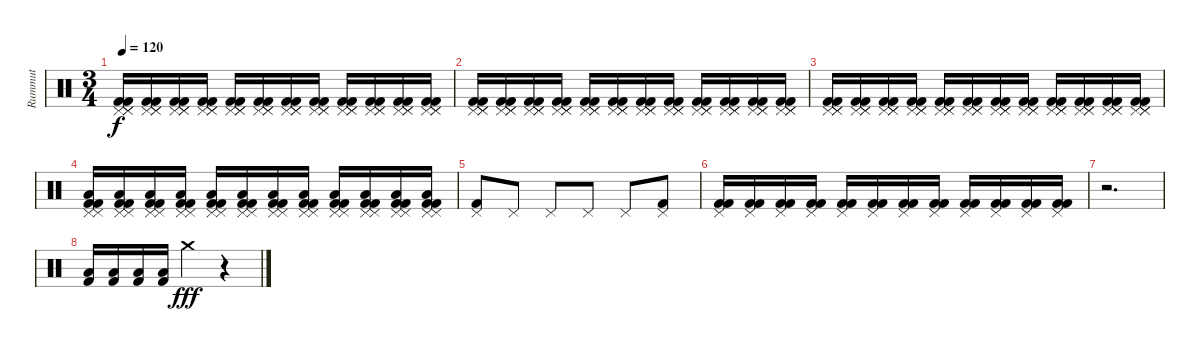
\track ("Rummut" "Rummut") {instrument percussion}
\staff {score}
\articulation defaults
\ts (3 4)
\tempo 120
\clef neutral
\ks c
("Pedal Hi-Hat (hit)" "Pedal Hi-Hat (hit)" "Pedal Hi-Hat (hit)" "Kick (hit) 2" "Kick (hit) 2").16{dy f} ("Pedal Hi-Hat (hit)" "Pedal Hi-Hat (hit)" "Pedal Hi-Hat (hit)" "Kick (hit) 2" "Kick (hit) 2").16 ("Pedal Hi-Hat (hit)" "Pedal Hi-Hat (hit)" "Pedal Hi-Hat (hit)" "Kick (hit) 2" "Kick (hit) 2").16 ("Pedal Hi-Hat (hit)" "Pedal Hi-Hat (hit)" "Pedal Hi-Hat (hit)" "Kick (hit) 2" "Kick (hit) 2").16 ("Pedal Hi-Hat (hit)" "Pedal Hi-Hat (hit)" "Pedal Hi-Hat (hit)" "Kick (hit) 2" "Kick (hit) 2").16 ("Pedal Hi-Hat (hit)" "Pedal Hi-Hat (hit)" "Pedal Hi-Hat (hit)" "Kick (hit) 2" "Kick (hit) 2").16 ("Pedal Hi-Hat (hit)" "Pedal Hi-Hat (hit)" "Pedal Hi-Hat (hit)" "Kick (hit) 2" "Kick (hit) 2").16 ("Pedal Hi-Hat (hit)" "Pedal Hi-Hat (hit)" "Pedal Hi-Hat (hit)" "Kick (hit) 2" "Kick (hit) 2").16 ("Pedal Hi-Hat (hit)" "Pedal Hi-Hat (hit)" "Pedal Hi-Hat (hit)" "Kick (hit) 2" "Kick (hit) 2").16 ("Pedal Hi-Hat (hit)" "Pedal Hi-Hat (hit)" "Pedal Hi-Hat (hit)" "Kick (hit) 2" "Kick (hit) 2").16 ("Pedal Hi-Hat (hit)" "Pedal Hi-Hat (hit)" "Pedal Hi-Hat (hit)" "Kick (hit) 2" "Kick (hit) 2").16 ("Pedal Hi-Hat (hit)" "Pedal Hi-Hat (hit)" "Pedal Hi-Hat (hit)" "Kick (hit) 2" "Kick (hit) 2").16 |
("Pedal Hi-Hat (hit)" "Pedal Hi-Hat (hit)" "Pedal Hi-Hat (hit)" "Kick (hit) 2" "Kick (hit) 2").16 ("Pedal Hi-Hat (hit)" "Pedal Hi-Hat (hit)" "Pedal Hi-Hat (hit)" "Kick (hit) 2" "Kick (hit) 2").16 ("Pedal Hi-Hat (hit)" "Pedal Hi-Hat (hit)" "Pedal Hi-Hat (hit)" "Kick (hit) 2" "Kick (hit) 2").16 ("Pedal Hi-Hat (hit)" "Pedal Hi-Hat (hit)" "Pedal Hi-Hat (hit)" "Kick (hit) 2" "Kick (hit) 2").16 ("Pedal Hi-Hat (hit)" "Pedal Hi-Hat (hit)" "Pedal Hi-Hat (hit)" "Kick (hit) 2" "Kick (hit) 2").16 ("Pedal Hi-Hat (hit)" "Pedal Hi-Hat (hit)" "Pedal Hi-Hat (hit)" "Kick (hit) 2" "Kick (hit) 2").16 ("Pedal Hi-Hat (hit)" "Pedal Hi-Hat (hit)" "Pedal Hi-Hat (hit)" "Kick (hit) 2" "Kick (hit) 2").16 ("Pedal Hi-Hat (hit)" "Pedal Hi-Hat (hit)" "Pedal Hi-Hat (hit)" "Kick (hit) 2" "Kick (hit) 2").16 ("Pedal Hi-Hat (hit)" "Pedal Hi-Hat (hit)" "Pedal Hi-Hat (hit)" "Kick (hit) 2" "Kick (hit) 2").16 ("Pedal Hi-Hat (hit)" "Pedal Hi-Hat (hit)" "Pedal Hi-Hat (hit)" "Kick (hit) 2" "Kick (hit) 2").16 ("Pedal Hi-Hat (hit)" "Pedal Hi-Hat (hit)" "Pedal Hi-Hat (hit)" "Kick (hit) 2" "Kick (hit) 2").16 ("Pedal Hi-Hat (hit)" "Pedal Hi-Hat (hit)" "Pedal Hi-Hat (hit)" "Kick (hit) 2" "Kick (hit) 2").16 |
("Pedal Hi-Hat (hit)" "Pedal Hi-Hat (hit)" "Pedal Hi-Hat (hit)" "Kick (hit) 2" "Kick (hit) 2").16 ("Pedal Hi-Hat (hit)" "Pedal Hi-Hat (hit)" "Pedal Hi-Hat (hit)" "Kick (hit) 2" "Kick (hit) 2").16 ("Pedal Hi-Hat (hit)" "Pedal Hi-Hat (hit)" "Pedal Hi-Hat (hit)" "Kick (hit) 2" "Kick (hit) 2").16 ("Pedal Hi-Hat (hit)" "Pedal Hi-Hat (hit)" "Pedal Hi-Hat (hit)" "Kick (hit) 2" "Kick (hit) 2").16 ("Pedal Hi-Hat (hit)" "Pedal Hi-Hat (hit)" "Pedal Hi-Hat (hit)" "Kick (hit) 2" "Kick (hit) 2").16 ("Pedal Hi-Hat (hit)" "Pedal Hi-Hat (hit)" "Pedal Hi-Hat (hit)" "Kick (hit) 2" "Kick (hit) 2").16 ("Pedal Hi-Hat (hit)" "Pedal Hi-Hat (hit)" "Pedal Hi-Hat (hit)" "Kick (hit) 2" "Kick (hit) 2").16 ("Pedal Hi-Hat (hit)" "Pedal Hi-Hat (hit)" "Pedal Hi-Hat (hit)" "Kick (hit) 2" "Kick (hit) 2").16 ("Pedal Hi-Hat (hit)" "Pedal Hi-Hat (hit)" "Pedal Hi-Hat (hit)" "Kick (hit) 2" "Kick (hit) 2").16 ("Pedal Hi-Hat (hit)" "Pedal Hi-Hat (hit)" "Pedal Hi-Hat (hit)" "Kick (hit) 2" "Kick (hit) 2").16 ("Pedal Hi-Hat (hit)" "Pedal Hi-Hat (hit)" "Pedal Hi-Hat (hit)" "Kick (hit) 2" "Kick (hit) 2").16 ("Pedal Hi-Hat (hit)" "Pedal Hi-Hat (hit)" "Pedal Hi-Hat (hit)" "Kick (hit) 2" "Kick (hit) 2").16 |
("Pedal Hi-Hat (hit)" "Pedal Hi-Hat (hit)" "Low Tom (hit)" "Kick (hit) 2" "Kick (hit) 2").16 ("Pedal Hi-Hat (hit)" "Pedal Hi-Hat (hit)" "Low Tom (hit)" "Kick (hit) 2" "Kick (hit) 2").16 ("Pedal Hi-Hat (hit)" "Pedal Hi-Hat (hit)" "Low Tom (hit)" "Kick (hit) 2" "Kick (hit) 2").16 ("Pedal Hi-Hat (hit)" "Pedal Hi-Hat (hit)" "Low Tom (hit)" "Kick (hit) 2" "Kick (hit) 2").16 ("Pedal Hi-Hat (hit)" "Pedal Hi-Hat (hit)" "Low Tom (hit)" "Kick (hit) 2" "Kick (hit) 2").16 ("Pedal Hi-Hat (hit)" "Pedal Hi-Hat (hit)" "Low Tom (hit)" "Kick (hit) 2" "Kick (hit) 2").16 ("Pedal Hi-Hat (hit)" "Pedal Hi-Hat (hit)" "Low Tom (hit)" "Kick (hit) 2" "Kick (hit) 2").16 ("Pedal Hi-Hat (hit)" "Pedal Hi-Hat (hit)" "Low Tom (hit)" "Kick (hit) 2" "Kick (hit) 2").16 ("Pedal Hi-Hat (hit)" "Pedal Hi-Hat (hit)" "Low Tom (hit)" "Kick (hit) 2" "Kick (hit) 2").16 ("Pedal Hi-Hat (hit)" "Pedal Hi-Hat (hit)" "Low Tom (hit)" "Kick (hit) 2" "Kick (hit) 2").16 ("Pedal Hi-Hat (hit)" "Pedal Hi-Hat (hit)" "Low Tom (hit)" "Kick (hit) 2" "Kick (hit) 2").16 ("Pedal Hi-Hat (hit)" "Pedal Hi-Hat (hit)" "Low Tom (hit)" "Kick (hit) 2" "Kick (hit) 2").16 |
("Pedal Hi-Hat (hit)" "Kick (hit) 2").8 "Pedal Hi-Hat (hit)".8 "Pedal Hi-Hat (hit)".8 "Pedal Hi-Hat (hit)".8 "Pedal Hi-Hat (hit)".8 ("Pedal Hi-Hat (hit)" "Kick (hit) 2").8 |
("Pedal Hi-Hat (hit)" "Kick (hit) 2" "Kick (hit) 2").16 ("Pedal Hi-Hat (hit)" "Kick (hit) 2" "Kick (hit) 2").16 ("Pedal Hi-Hat (hit)" "Kick (hit) 2" "Kick (hit) 2").16 ("Pedal Hi-Hat (hit)" "Kick (hit) 2" "Kick (hit) 2").16 ("Pedal Hi-Hat (hit)" "Kick (hit) 2" "Kick (hit) 2").16 ("Pedal Hi-Hat (hit)" "Kick (hit) 2" "Kick (hit) 2").16 ("Pedal Hi-Hat (hit)" "Kick (hit) 2" "Kick (hit) 2").16 ("Pedal Hi-Hat (hit)" "Kick (hit) 2" "Kick (hit) 2").16 ("Pedal Hi-Hat (hit)" "Kick (hit) 2" "Kick (hit) 2").16 ("Pedal Hi-Hat (hit)" "Kick (hit) 2" "Kick (hit) 2").16 ("Pedal Hi-Hat (hit)" "Kick (hit) 2" "Kick (hit) 2").16 ("Pedal Hi-Hat (hit)" "Kick (hit) 2" "Kick (hit) 2").16 |
r.2{d} |
("Low Tom (hit)" "Kick (hit) 2").16 ("Low Tom (hit)" "Kick (hit) 2").16 ("Low Tom (hit)" "Kick (hit) 2").16 ("Low Tom (hit)" "Kick (hit) 2").16 "Crash medium (hit)".4{dy fff} r.4
